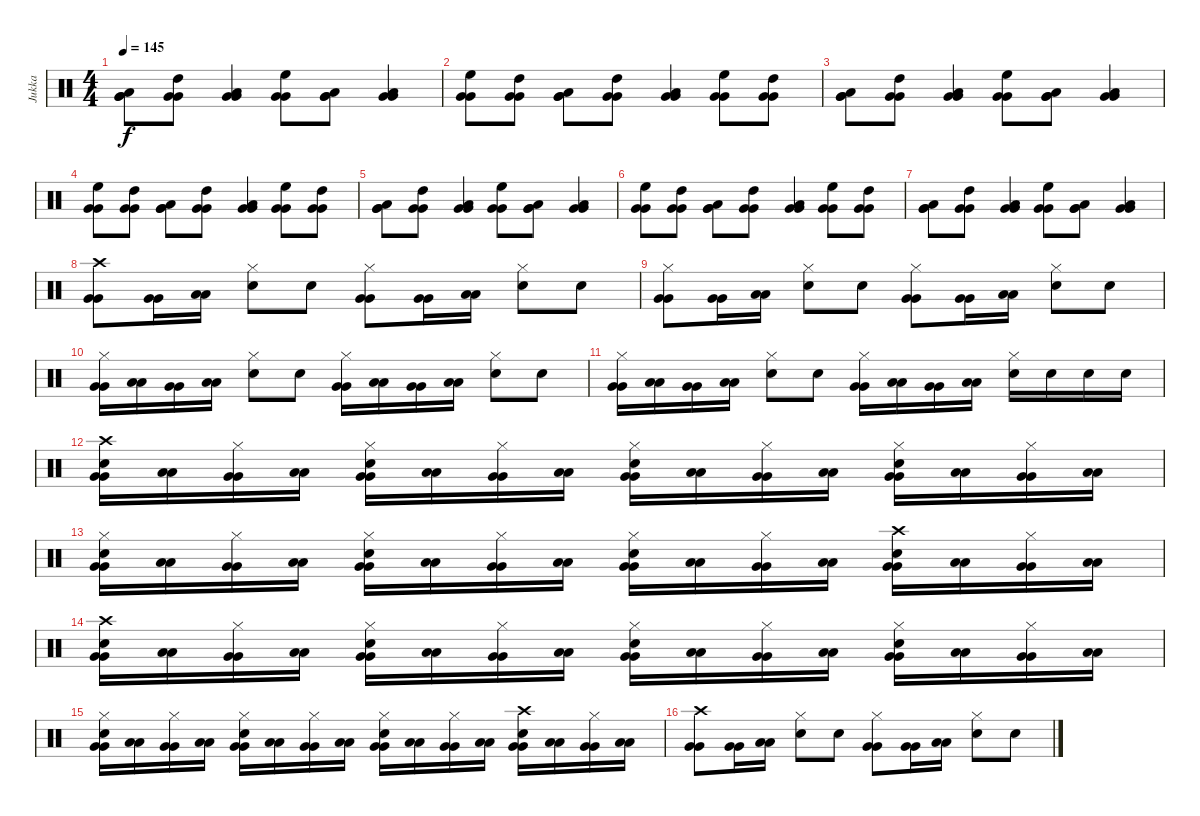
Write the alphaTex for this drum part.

\track ("Jukka" "Jukka") {instrument percussion}
\staff {score}
\articulation defaults
\ts (4 4)
\tempo 145
\clef neutral
\ks c
("Low Tom (hit)" "Very Low Tom (hit)" "Very Low Tom (hit)").8{dy f} ("High Tom (hit)" "Very Low Tom (hit)" "Very Low Tom (hit)").8 ("Low Tom (hit)" "Very Low Tom (hit)" "Very Low Tom (hit)").4 ("High Floor Tom (hit)" "Very Low Tom (hit)" "Very Low Tom (hit)").8 ("Low Tom (hit)" "Very Low Tom (hit)" "Very Low Tom (hit)").8 ("Low Tom (hit)" "Very Low Tom (hit)" "Very Low Tom (hit)").4 |
("High Floor Tom (hit)" "Very Low Tom (hit)" "Very Low Tom (hit)").8 ("High Tom (hit)" "Very Low Tom (hit)" "Very Low Tom (hit)").8 ("Low Tom (hit)" "Very Low Tom (hit)" "Very Low Tom (hit)").8 ("High Tom (hit)" "Very Low Tom (hit)" "Very Low Tom (hit)").8 ("Low Tom (hit)" "Very Low Tom (hit)" "Very Low Tom (hit)").4 ("High Floor Tom (hit)" "Very Low Tom (hit)" "Very Low Tom (hit)").8 ("High Tom (hit)" "Very Low Tom (hit)" "Very Low Tom (hit)").8 |
("Low Tom (hit)" "Very Low Tom (hit)" "Very Low Tom (hit)").8 ("High Tom (hit)" "Very Low Tom (hit)" "Very Low Tom (hit)").8 ("Low Tom (hit)" "Very Low Tom (hit)" "Very Low Tom (hit)").4 ("High Floor Tom (hit)" "Very Low Tom (hit)" "Very Low Tom (hit)").8 ("Low Tom (hit)" "Very Low Tom (hit)" "Very Low Tom (hit)").8 ("Low Tom (hit)" "Very Low Tom (hit)" "Very Low Tom (hit)").4 |
("High Floor Tom (hit)" "Very Low Tom (hit)" "Very Low Tom (hit)").8 ("High Tom (hit)" "Very Low Tom (hit)" "Very Low Tom (hit)").8 ("Low Tom (hit)" "Very Low Tom (hit)" "Very Low Tom (hit)").8 ("High Tom (hit)" "Very Low Tom (hit)" "Very Low Tom (hit)").8 ("Low Tom (hit)" "Very Low Tom (hit)" "Very Low Tom (hit)").4 ("High Floor Tom (hit)" "Very Low Tom (hit)" "Very Low Tom (hit)").8 ("High Tom (hit)" "Very Low Tom (hit)" "Very Low Tom (hit)").8 |
("Low Tom (hit)" "Very Low Tom (hit)" "Very Low Tom (hit)").8 ("High Tom (hit)" "Very Low Tom (hit)" "Very Low Tom (hit)").8 ("Low Tom (hit)" "Very Low Tom (hit)" "Very Low Tom (hit)").4 ("High Floor Tom (hit)" "Very Low Tom (hit)" "Very Low Tom (hit)").8 ("Low Tom (hit)" "Very Low Tom (hit)" "Very Low Tom (hit)").8 ("Low Tom (hit)" "Very Low Tom (hit)" "Very Low Tom (hit)").4 |
("High Floor Tom (hit)" "Very Low Tom (hit)" "Very Low Tom (hit)").8 ("High Tom (hit)" "Very Low Tom (hit)" "Very Low Tom (hit)").8 ("Low Tom (hit)" "Very Low Tom (hit)" "Very Low Tom (hit)").8 ("High Tom (hit)" "Very Low Tom (hit)" "Very Low Tom (hit)").8 ("Low Tom (hit)" "Very Low Tom (hit)" "Very Low Tom (hit)").4 ("High Floor Tom (hit)" "Very Low Tom (hit)" "Very Low Tom (hit)").8 ("High Tom (hit)" "Very Low Tom (hit)" "Very Low Tom (hit)").8 |
("Low Tom (hit)" "Very Low Tom (hit)" "Very Low Tom (hit)").8 ("High Tom (hit)" "Very Low Tom (hit)" "Very Low Tom (hit)").8 ("Low Tom (hit)" "Very Low Tom (hit)" "Very Low Tom (hit)").4 ("High Floor Tom (hit)" "Very Low Tom (hit)" "Very Low Tom (hit)").8 ("Low Tom (hit)" "Very Low Tom (hit)" "Very Low Tom (hit)").8 ("Low Tom (hit)" "Very Low Tom (hit)" "Very Low Tom (hit)").4 |
("Crash high (hit)" "Very Low Tom (hit)" "Very Low Tom (hit)").8 ("Very Low Tom (hit)" "Very Low Tom (hit)").16 ("Low Floor Tom (hit)" "Low Floor Tom (hit)").16 ("Hi-Hat (closed)" "Electric Snare (hit)").8 "Electric Snare (hit)".8 ("Hi-Hat (closed)" "Very Low Tom (hit)" "Very Low Tom (hit)").8 ("Very Low Tom (hit)" "Very Low Tom (hit)").16 ("Low Floor Tom (hit)" "Low Floor Tom (hit)").16 ("Hi-Hat (closed)" "Electric Snare (hit)").8 "Electric Snare (hit)".8 |
("Hi-Hat (closed)" "Very Low Tom (hit)" "Very Low Tom (hit)").8 ("Very Low Tom (hit)" "Very Low Tom (hit)").16 ("Low Floor Tom (hit)" "Low Floor Tom (hit)").16 ("Hi-Hat (closed)" "Electric Snare (hit)").8 "Electric Snare (hit)".8 ("Hi-Hat (closed)" "Very Low Tom (hit)" "Very Low Tom (hit)").8 ("Very Low Tom (hit)" "Very Low Tom (hit)").16 ("Low Floor Tom (hit)" "Low Floor Tom (hit)").16 ("Hi-Hat (closed)" "Electric Snare (hit)").8 "Electric Snare (hit)".8 |
("Hi-Hat (closed)" "Very Low Tom (hit)" "Very Low Tom (hit)").16 ("Low Floor Tom (hit)" "Low Floor Tom (hit)").16 ("Very Low Tom (hit)" "Very Low Tom (hit)").16 ("Low Floor Tom (hit)" "Low Floor Tom (hit)").16 ("Hi-Hat (closed)" "Electric Snare (hit)").8 "Electric Snare (hit)".8 ("Hi-Hat (closed)" "Very Low Tom (hit)" "Very Low Tom (hit)").16 ("Low Floor Tom (hit)" "Low Floor Tom (hit)").16 ("Very Low Tom (hit)" "Very Low Tom (hit)").16 ("Low Floor Tom (hit)" "Low Floor Tom (hit)").16 ("Hi-Hat (closed)" "Electric Snare (hit)").8 "Electric Snare (hit)".8 |
("Hi-Hat (closed)" "Very Low Tom (hit)" "Very Low Tom (hit)").16 ("Low Floor Tom (hit)" "Low Floor Tom (hit)").16 ("Very Low Tom (hit)" "Very Low Tom (hit)").16 ("Low Floor Tom (hit)" "Low Floor Tom (hit)").16 ("Hi-Hat (closed)" "Electric Snare (hit)").8 "Electric Snare (hit)".8 ("Hi-Hat (closed)" "Very Low Tom (hit)" "Very Low Tom (hit)").16 ("Low Floor Tom (hit)" "Low Floor Tom (hit)").16 ("Very Low Tom (hit)" "Very Low Tom (hit)").16 ("Low Floor Tom (hit)" "Low Floor Tom (hit)").16 ("Hi-Hat (closed)" "Electric Snare (hit)").16 "Electric Snare (hit)".16 "Electric Snare (hit)".16 "Electric Snare (hit)".16 |
("Crash high (hit)" "Electric Snare (hit)" "Very Low Tom (hit)" "Very Low Tom (hit)").16 ("Low Floor Tom (hit)" "Low Floor Tom (hit)").16 ("Hi-Hat (closed)" "Very Low Tom (hit)" "Very Low Tom (hit)").16 ("Low Floor Tom (hit)" "Low Floor Tom (hit)").16 ("Hi-Hat (closed)" "Electric Snare (hit)" "Very Low Tom (hit)" "Very Low Tom (hit)").16 ("Low Floor Tom (hit)" "Low Floor Tom (hit)").16 ("Hi-Hat (closed)" "Very Low Tom (hit)" "Very Low Tom (hit)").16 ("Low Floor Tom (hit)" "Low Floor Tom (hit)").16 ("Hi-Hat (closed)" "Electric Snare (hit)" "Very Low Tom (hit)" "Very Low Tom (hit)").16 ("Low Floor Tom (hit)" "Low Floor Tom (hit)").16 ("Hi-Hat (closed)" "Very Low Tom (hit)" "Very Low Tom (hit)").16 ("Low Floor Tom (hit)" "Low Floor Tom (hit)").16 ("Hi-Hat (closed)" "Electric Snare (hit)" "Very Low Tom (hit)" "Very Low Tom (hit)").16 ("Low Floor Tom (hit)" "Low Floor Tom (hit)").16 ("Hi-Hat (closed)" "Very Low Tom (hit)" "Very Low Tom (hit)").16 ("Low Floor Tom (hit)" "Low Floor Tom (hit)").16 |
("Hi-Hat (closed)" "Electric Snare (hit)" "Very Low Tom (hit)" "Very Low Tom (hit)").16 ("Low Floor Tom (hit)" "Low Floor Tom (hit)").16 ("Hi-Hat (closed)" "Very Low Tom (hit)" "Very Low Tom (hit)").16 ("Low Floor Tom (hit)" "Low Floor Tom (hit)").16 ("Hi-Hat (closed)" "Electric Snare (hit)" "Very Low Tom (hit)" "Very Low Tom (hit)").16 ("Low Floor Tom (hit)" "Low Floor Tom (hit)").16 ("Hi-Hat (closed)" "Very Low Tom (hit)" "Very Low Tom (hit)").16 ("Low Floor Tom (hit)" "Low Floor Tom (hit)").16 ("Hi-Hat (closed)" "Electric Snare (hit)" "Very Low Tom (hit)" "Very Low Tom (hit)").16 ("Low Floor Tom (hit)" "Low Floor Tom (hit)").16 ("Hi-Hat (closed)" "Very Low Tom (hit)" "Very Low Tom (hit)").16 ("Low Floor Tom (hit)" "Low Floor Tom (hit)").16 ("Crash high (hit)" "Electric Snare (hit)" "Very Low Tom (hit)" "Very Low Tom (hit)").16 ("Low Floor Tom (hit)" "Low Floor Tom (hit)").16 ("Hi-Hat (closed)" "Very Low Tom (hit)" "Very Low Tom (hit)").16 ("Low Floor Tom (hit)" "Low Floor Tom (hit)").16 |
("Crash high (hit)" "Electric Snare (hit)" "Very Low Tom (hit)" "Very Low Tom (hit)").16 ("Low Floor Tom (hit)" "Low Floor Tom (hit)").16 ("Hi-Hat (closed)" "Very Low Tom (hit)" "Very Low Tom (hit)").16 ("Low Floor Tom (hit)" "Low Floor Tom (hit)").16 ("Hi-Hat (closed)" "Electric Snare (hit)" "Very Low Tom (hit)" "Very Low Tom (hit)").16 ("Low Floor Tom (hit)" "Low Floor Tom (hit)").16 ("Hi-Hat (closed)" "Very Low Tom (hit)" "Very Low Tom (hit)").16 ("Low Floor Tom (hit)" "Low Floor Tom (hit)").16 ("Hi-Hat (closed)" "Electric Snare (hit)" "Very Low Tom (hit)" "Very Low Tom (hit)").16 ("Low Floor Tom (hit)" "Low Floor Tom (hit)").16 ("Hi-Hat (closed)" "Very Low Tom (hit)" "Very Low Tom (hit)").16 ("Low Floor Tom (hit)" "Low Floor Tom (hit)").16 ("Hi-Hat (closed)" "Electric Snare (hit)" "Very Low Tom (hit)" "Very Low Tom (hit)").16 ("Low Floor Tom (hit)" "Low Floor Tom (hit)").16 ("Hi-Hat (closed)" "Very Low Tom (hit)" "Very Low Tom (hit)").16 ("Low Floor Tom (hit)" "Low Floor Tom (hit)").16 |
("Hi-Hat (closed)" "Electric Snare (hit)" "Very Low Tom (hit)" "Very Low Tom (hit)").16 ("Low Floor Tom (hit)" "Low Floor Tom (hit)").16 ("Hi-Hat (closed)" "Very Low Tom (hit)" "Very Low Tom (hit)").16 ("Low Floor Tom (hit)" "Low Floor Tom (hit)").16 ("Hi-Hat (closed)" "Electric Snare (hit)" "Very Low Tom (hit)" "Very Low Tom (hit)").16 ("Low Floor Tom (hit)" "Low Floor Tom (hit)").16 ("Hi-Hat (closed)" "Very Low Tom (hit)" "Very Low Tom (hit)").16 ("Low Floor Tom (hit)" "Low Floor Tom (hit)").16 ("Hi-Hat (closed)" "Electric Snare (hit)" "Very Low Tom (hit)" "Very Low Tom (hit)").16 ("Low Floor Tom (hit)" "Low Floor Tom (hit)").16 ("Hi-Hat (closed)" "Very Low Tom (hit)" "Very Low Tom (hit)").16 ("Low Floor Tom (hit)" "Low Floor Tom (hit)").16 ("Crash high (hit)" "Electric Snare (hit)" "Very Low Tom (hit)" "Very Low Tom (hit)").16 ("Low Floor Tom (hit)" "Low Floor Tom (hit)").16 ("Hi-Hat (closed)" "Very Low Tom (hit)" "Very Low Tom (hit)").16 ("Low Floor Tom (hit)" "Low Floor Tom (hit)").16 |
("Crash high (hit)" "Very Low Tom (hit)" "Very Low Tom (hit)").8 ("Very Low Tom (hit)" "Very Low Tom (hit)").16 ("Low Floor Tom (hit)" "Low Floor Tom (hit)").16 ("Hi-Hat (closed)" "Electric Snare (hit)").8 "Electric Snare (hit)".8 ("Hi-Hat (closed)" "Very Low Tom (hit)" "Very Low Tom (hit)").8 ("Very Low Tom (hit)" "Very Low Tom (hit)").16 ("Low Floor Tom (hit)" "Low Floor Tom (hit)").16 ("Hi-Hat (closed)" "Electric Snare (hit)").8 "Electric Snare (hit)".8
